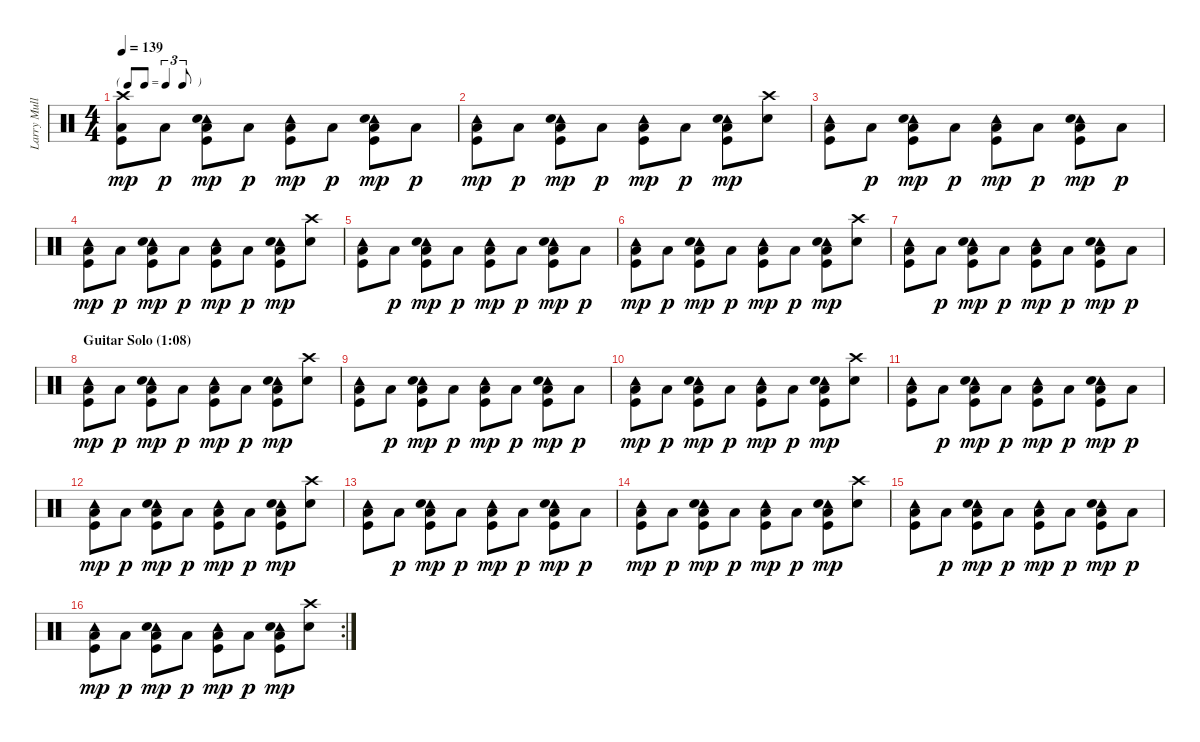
\track ("Larry Mullen Jr" "Larry Mull") {instrument percussion}
\staff {score}
\articulation defaults
\ts (4 4)
\tf triplet8th
\tempo 139
\clef neutral
\ks c
("Crash high (hit)" "Low Floor Tom (hit)" "Kick (hit)").8{dy mp} "Low Floor Tom (hit)".8{dy p} ("Tambourine (hit)" "Electric Snare (hit)" "Low Floor Tom (hit)" "Kick (hit)").8{dy mp} "Low Floor Tom (hit)".8{dy p} ("Tambourine (hit)" "Low Floor Tom (hit)" "Kick (hit)").8{dy mp} "Low Floor Tom (hit)".8{dy p} ("Tambourine (hit)" "Electric Snare (hit)" "Low Floor Tom (hit)" "Kick (hit)").8{dy mp} "Low Floor Tom (hit)".8{dy p} |
("Tambourine (hit)" "Low Floor Tom (hit)" "Kick (hit)").8{dy mp} "Low Floor Tom (hit)".8{dy p} ("Tambourine (hit)" "Electric Snare (hit)" "Low Floor Tom (hit)" "Kick (hit)").8{dy mp} "Low Floor Tom (hit)".8{dy p} ("Tambourine (hit)" "Low Floor Tom (hit)" "Kick (hit)").8{dy mp} "Low Floor Tom (hit)".8{dy p} ("Tambourine (hit)" "Electric Snare (hit)" "Low Floor Tom (hit)" "Kick (hit)").8{dy mp} ("Crash high (hit)" "Electric Snare (hit)").8 |
("Tambourine (hit)" "Low Floor Tom (hit)" "Kick (hit)").8 "Low Floor Tom (hit)".8{dy p} ("Tambourine (hit)" "Electric Snare (hit)" "Low Floor Tom (hit)" "Kick (hit)").8{dy mp} "Low Floor Tom (hit)".8{dy p} ("Tambourine (hit)" "Low Floor Tom (hit)" "Kick (hit)").8{dy mp} "Low Floor Tom (hit)".8{dy p} ("Tambourine (hit)" "Electric Snare (hit)" "Low Floor Tom (hit)" "Kick (hit)").8{dy mp} "Low Floor Tom (hit)".8{dy p} |
("Tambourine (hit)" "Low Floor Tom (hit)" "Kick (hit)").8{dy mp} "Low Floor Tom (hit)".8{dy p} ("Tambourine (hit)" "Electric Snare (hit)" "Low Floor Tom (hit)" "Kick (hit)").8{dy mp} "Low Floor Tom (hit)".8{dy p} ("Tambourine (hit)" "Low Floor Tom (hit)" "Kick (hit)").8{dy mp} "Low Floor Tom (hit)".8{dy p} ("Tambourine (hit)" "Electric Snare (hit)" "Low Floor Tom (hit)" "Kick (hit)").8{dy mp} ("Crash high (hit)" "Electric Snare (hit)").8 |
("Tambourine (hit)" "Low Floor Tom (hit)" "Kick (hit)").8 "Low Floor Tom (hit)".8{dy p} ("Tambourine (hit)" "Electric Snare (hit)" "Low Floor Tom (hit)" "Kick (hit)").8{dy mp} "Low Floor Tom (hit)".8{dy p} ("Tambourine (hit)" "Low Floor Tom (hit)" "Kick (hit)").8{dy mp} "Low Floor Tom (hit)".8{dy p} ("Tambourine (hit)" "Electric Snare (hit)" "Low Floor Tom (hit)" "Kick (hit)").8{dy mp} "Low Floor Tom (hit)".8{dy p} |
("Tambourine (hit)" "Low Floor Tom (hit)" "Kick (hit)").8{dy mp} "Low Floor Tom (hit)".8{dy p} ("Tambourine (hit)" "Electric Snare (hit)" "Low Floor Tom (hit)" "Kick (hit)").8{dy mp} "Low Floor Tom (hit)".8{dy p} ("Tambourine (hit)" "Low Floor Tom (hit)" "Kick (hit)").8{dy mp} "Low Floor Tom (hit)".8{dy p} ("Tambourine (hit)" "Electric Snare (hit)" "Low Floor Tom (hit)" "Kick (hit)").8{dy mp} ("Crash high (hit)" "Electric Snare (hit)").8 |
("Tambourine (hit)" "Low Floor Tom (hit)" "Kick (hit)").8 "Low Floor Tom (hit)".8{dy p} ("Tambourine (hit)" "Electric Snare (hit)" "Low Floor Tom (hit)" "Kick (hit)").8{dy mp} "Low Floor Tom (hit)".8{dy p} ("Tambourine (hit)" "Low Floor Tom (hit)" "Kick (hit)").8{dy mp} "Low Floor Tom (hit)".8{dy p} ("Tambourine (hit)" "Electric Snare (hit)" "Low Floor Tom (hit)" "Kick (hit)").8{dy mp} "Low Floor Tom (hit)".8{dy p} |
\section ("" "Guitar Solo (1:08)")
("Tambourine (hit)" "Low Floor Tom (hit)" "Kick (hit)").8{dy mp} "Low Floor Tom (hit)".8{dy p} ("Tambourine (hit)" "Electric Snare (hit)" "Low Floor Tom (hit)" "Kick (hit)").8{dy mp} "Low Floor Tom (hit)".8{dy p} ("Tambourine (hit)" "Low Floor Tom (hit)" "Kick (hit)").8{dy mp} "Low Floor Tom (hit)".8{dy p} ("Tambourine (hit)" "Electric Snare (hit)" "Low Floor Tom (hit)" "Kick (hit)").8{dy mp} ("Crash high (hit)" "Electric Snare (hit)").8 |
("Tambourine (hit)" "Low Floor Tom (hit)" "Kick (hit)").8 "Low Floor Tom (hit)".8{dy p} ("Tambourine (hit)" "Electric Snare (hit)" "Low Floor Tom (hit)" "Kick (hit)").8{dy mp} "Low Floor Tom (hit)".8{dy p} ("Tambourine (hit)" "Low Floor Tom (hit)" "Kick (hit)").8{dy mp} "Low Floor Tom (hit)".8{dy p} ("Tambourine (hit)" "Electric Snare (hit)" "Low Floor Tom (hit)" "Kick (hit)").8{dy mp} "Low Floor Tom (hit)".8{dy p} |
("Tambourine (hit)" "Low Floor Tom (hit)" "Kick (hit)").8{dy mp} "Low Floor Tom (hit)".8{dy p} ("Tambourine (hit)" "Electric Snare (hit)" "Low Floor Tom (hit)" "Kick (hit)").8{dy mp} "Low Floor Tom (hit)".8{dy p} ("Tambourine (hit)" "Low Floor Tom (hit)" "Kick (hit)").8{dy mp} "Low Floor Tom (hit)".8{dy p} ("Tambourine (hit)" "Electric Snare (hit)" "Low Floor Tom (hit)" "Kick (hit)").8{dy mp} ("Crash high (hit)" "Electric Snare (hit)").8 |
("Tambourine (hit)" "Low Floor Tom (hit)" "Kick (hit)").8 "Low Floor Tom (hit)".8{dy p} ("Tambourine (hit)" "Electric Snare (hit)" "Low Floor Tom (hit)" "Kick (hit)").8{dy mp} "Low Floor Tom (hit)".8{dy p} ("Tambourine (hit)" "Low Floor Tom (hit)" "Kick (hit)").8{dy mp} "Low Floor Tom (hit)".8{dy p} ("Tambourine (hit)" "Electric Snare (hit)" "Low Floor Tom (hit)" "Kick (hit)").8{dy mp} "Low Floor Tom (hit)".8{dy p} |
("Tambourine (hit)" "Low Floor Tom (hit)" "Kick (hit)").8{dy mp} "Low Floor Tom (hit)".8{dy p} ("Tambourine (hit)" "Electric Snare (hit)" "Low Floor Tom (hit)" "Kick (hit)").8{dy mp} "Low Floor Tom (hit)".8{dy p} ("Tambourine (hit)" "Low Floor Tom (hit)" "Kick (hit)").8{dy mp} "Low Floor Tom (hit)".8{dy p} ("Tambourine (hit)" "Electric Snare (hit)" "Low Floor Tom (hit)" "Kick (hit)").8{dy mp} ("Crash high (hit)" "Electric Snare (hit)").8 |
("Tambourine (hit)" "Low Floor Tom (hit)" "Kick (hit)").8 "Low Floor Tom (hit)".8{dy p} ("Tambourine (hit)" "Electric Snare (hit)" "Low Floor Tom (hit)" "Kick (hit)").8{dy mp} "Low Floor Tom (hit)".8{dy p} ("Tambourine (hit)" "Low Floor Tom (hit)" "Kick (hit)").8{dy mp} "Low Floor Tom (hit)".8{dy p} ("Tambourine (hit)" "Electric Snare (hit)" "Low Floor Tom (hit)" "Kick (hit)").8{dy mp} "Low Floor Tom (hit)".8{dy p} |
("Tambourine (hit)" "Low Floor Tom (hit)" "Kick (hit)").8{dy mp} "Low Floor Tom (hit)".8{dy p} ("Tambourine (hit)" "Electric Snare (hit)" "Low Floor Tom (hit)" "Kick (hit)").8{dy mp} "Low Floor Tom (hit)".8{dy p} ("Tambourine (hit)" "Low Floor Tom (hit)" "Kick (hit)").8{dy mp} "Low Floor Tom (hit)".8{dy p} ("Tambourine (hit)" "Electric Snare (hit)" "Low Floor Tom (hit)" "Kick (hit)").8{dy mp} ("Crash high (hit)" "Electric Snare (hit)").8 |
("Tambourine (hit)" "Low Floor Tom (hit)" "Kick (hit)").8 "Low Floor Tom (hit)".8{dy p} ("Tambourine (hit)" "Electric Snare (hit)" "Low Floor Tom (hit)" "Kick (hit)").8{dy mp} "Low Floor Tom (hit)".8{dy p} ("Tambourine (hit)" "Low Floor Tom (hit)" "Kick (hit)").8{dy mp} "Low Floor Tom (hit)".8{dy p} ("Tambourine (hit)" "Electric Snare (hit)" "Low Floor Tom (hit)" "Kick (hit)").8{dy mp} "Low Floor Tom (hit)".8{dy p} |
\rc 2
("Tambourine (hit)" "Low Floor Tom (hit)" "Kick (hit)").8{dy mp} "Low Floor Tom (hit)".8{dy p} ("Tambourine (hit)" "Electric Snare (hit)" "Low Floor Tom (hit)" "Kick (hit)").8{dy mp} "Low Floor Tom (hit)".8{dy p} ("Tambourine (hit)" "Low Floor Tom (hit)" "Kick (hit)").8{dy mp} "Low Floor Tom (hit)".8{dy p} ("Tambourine (hit)" "Electric Snare (hit)" "Low Floor Tom (hit)" "Kick (hit)").8{dy mp} ("Crash high (hit)" "Electric Snare (hit)").8
